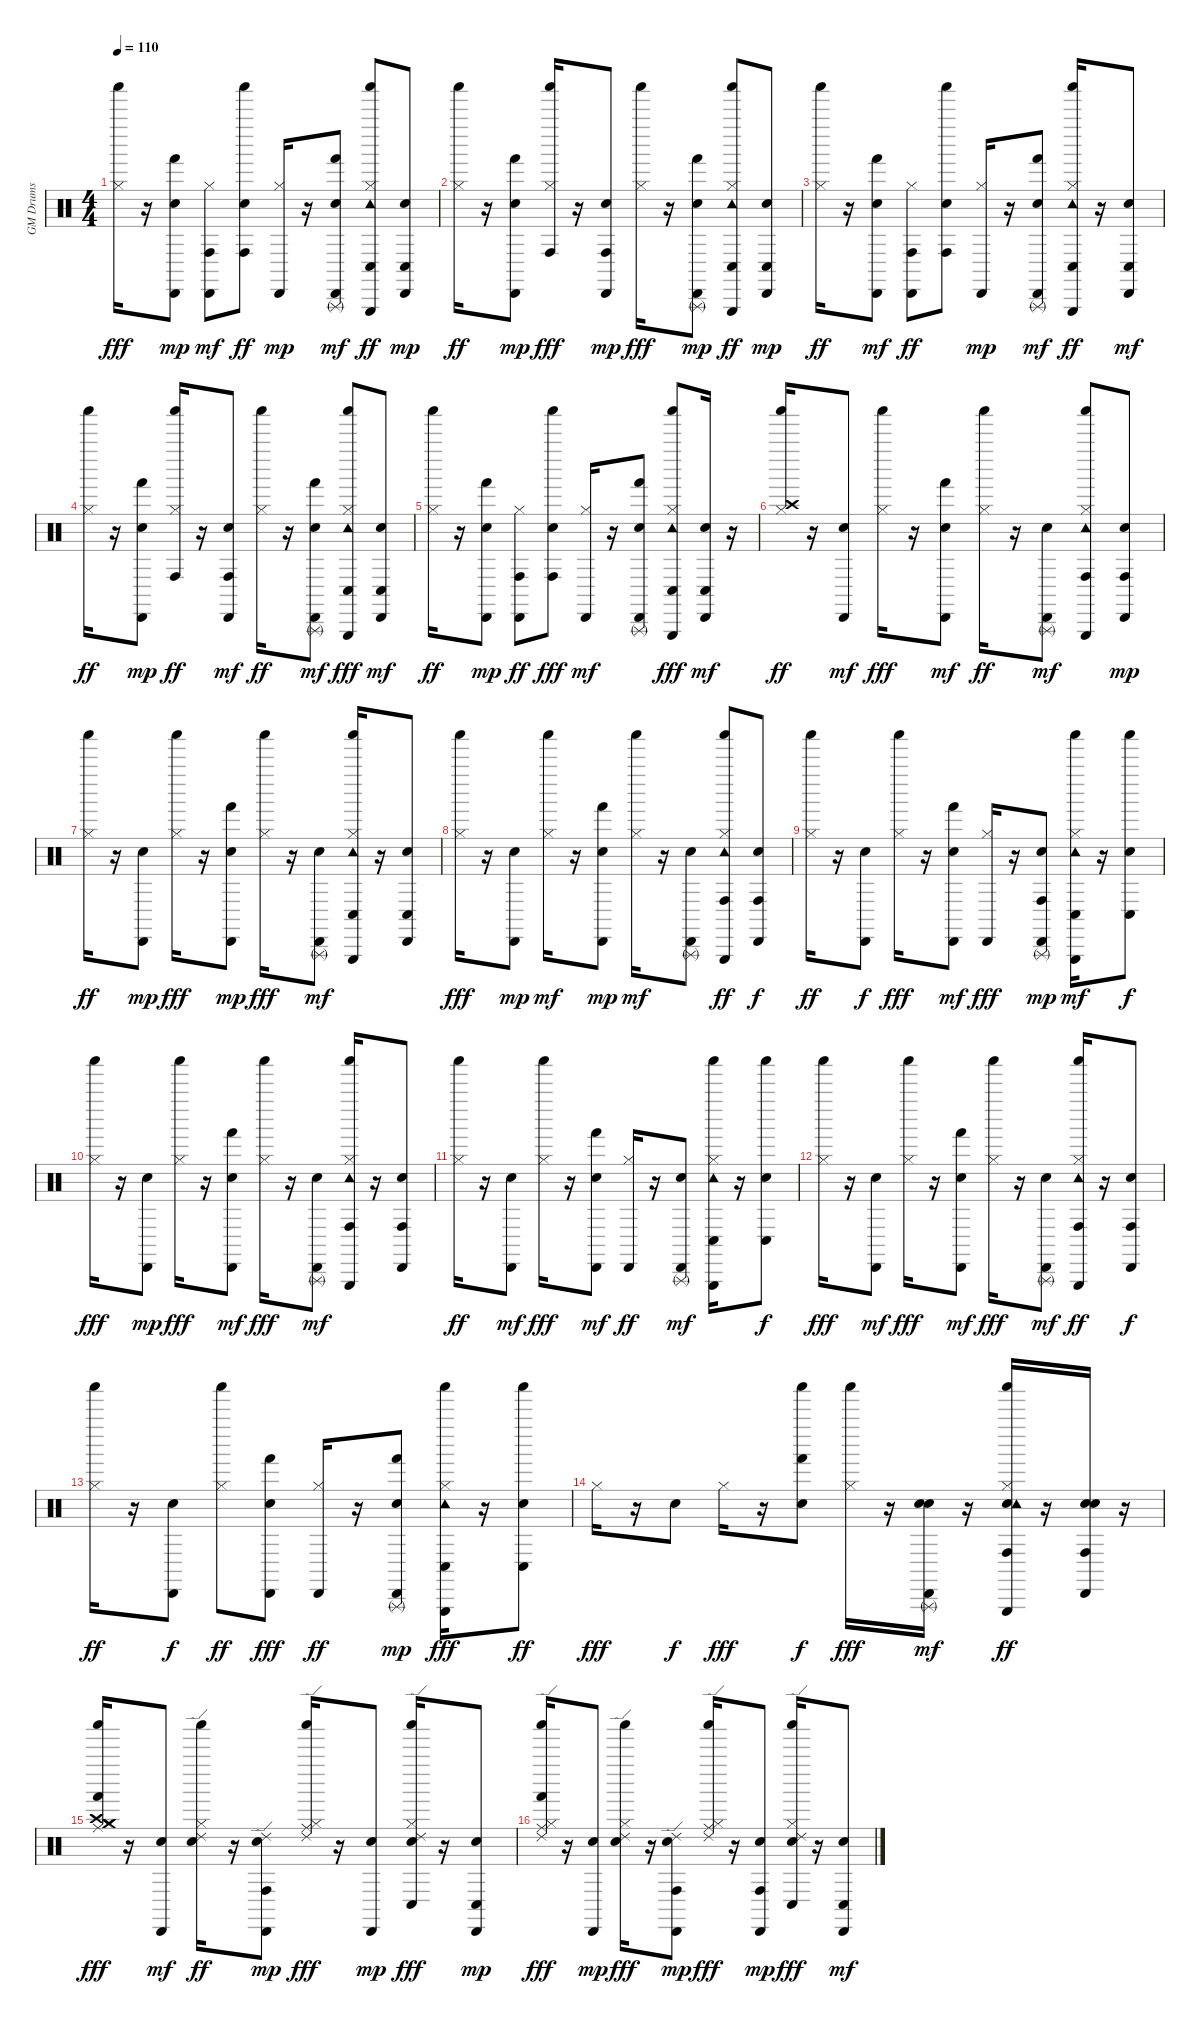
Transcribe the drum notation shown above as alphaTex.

\track ("GM Drums" "GM Drums") {instrument percussion}
\staff {score}
\articulation defaults
\ts (4 4)
\tempo 110
\clef neutral
\ks c
("Hi-Hat (closed)" "Shaker (hit)").16{dy fff} r.16 ("Snare (hit)" "Hand (hit)" "Cabasa (hit)").8{dy mp} ("Hi-Hat (closed)" "Conga high (hit)" "Cabasa (hit)").8{dy mf} ("Snare (hit)" "Conga high (hit)" "Shaker (hit)").8{dy ff} ("Hi-Hat (closed)" "Cabasa (hit)").16{dy mp} r.16 ("Snare (hit)" "Hand (hit)" "Cabasa (hit)" "Triangle (rnute)").8{dy mf} ("Hi-Hat (closed)" "Tambourine (hit)" "Conga low (hit)" "Triangle (hit)" "Shaker (hit)").8{dy ff} ("Snare (hit)" "Conga low (hit)" "Cabasa (hit)").8{dy mp} |
("Hi-Hat (closed)" "Shaker (hit)").16{dy ff} r.16 ("Snare (hit)" "Hand (hit)" "Cabasa (hit)").8{dy mp} ("Hi-Hat (closed)" "Conga high (hit)" "Shaker (hit)").16{dy fff} r.16 ("Snare (hit)" "Conga high (hit)" "Cabasa (hit)").8{dy mp} ("Hi-Hat (closed)" "Shaker (hit)").16{dy fff} r.16 ("Snare (hit)" "Hand (hit)" "Cabasa (hit)" "Triangle (rnute)").8{dy mp} ("Hi-Hat (closed)" "Tambourine (hit)" "Conga low (hit)" "Triangle (hit)" "Shaker (hit)").8{dy ff} ("Snare (hit)" "Conga low (hit)" "Cabasa (hit)").8{dy mp} |
("Hi-Hat (closed)" "Shaker (hit)").16{dy ff} r.16 ("Snare (hit)" "Hand (hit)" "Cabasa (hit)").8{dy mf} ("Hi-Hat (closed)" "Conga high (hit)" "Cabasa (hit)").8{dy ff} ("Snare (hit)" "Conga high (hit)" "Shaker (hit)").8 ("Hi-Hat (closed)" "Cabasa (hit)").16{dy mp} r.16 ("Snare (hit)" "Hand (hit)" "Cabasa (hit)" "Triangle (rnute)").8{dy mf} ("Hi-Hat (closed)" "Tambourine (hit)" "Conga low (hit)" "Triangle (hit)" "Shaker (hit)").16{dy ff} r.16 ("Snare (hit)" "Conga low (hit)" "Cabasa (hit)").8{dy mf} |
("Hi-Hat (closed)" "Shaker (hit)").16{dy ff} r.16 ("Snare (hit)" "Hand (hit)" "Cabasa (hit)").8{dy mp} ("Hi-Hat (closed)" "Conga high (hit)" "Shaker (hit)").16{dy ff} r.16 ("Snare (hit)" "Conga high (hit)" "Cabasa (hit)").8{dy mf} ("Hi-Hat (closed)" "Shaker (hit)").16{dy ff} r.16 ("Snare (hit)" "Hand (hit)" "Cabasa (hit)" "Triangle (rnute)").8{dy mf} ("Hi-Hat (closed)" "Tambourine (hit)" "Conga low (hit)" "Triangle (hit)" "Shaker (hit)").8{dy fff} ("Snare (hit)" "Conga low (hit)" "Cabasa (hit)").8{dy mf} |
("Hi-Hat (closed)" "Shaker (hit)").16{dy ff} r.16 ("Snare (hit)" "Hand (hit)" "Cabasa (hit)").8{dy mp} ("Hi-Hat (closed)" "Conga high (hit)" "Cabasa (hit)").8{dy ff} ("Snare (hit)" "Conga high (hit)" "Shaker (hit)").8{dy fff} ("Hi-Hat (closed)" "Cabasa (hit)").16{dy mf} r.16 ("Snare (hit)" "Hand (hit)" "Cabasa (hit)" "Triangle (rnute)").8 ("Hi-Hat (closed)" "Tambourine (hit)" "Conga low (hit)" "Triangle (hit)" "Shaker (hit)").8{dy fff} ("Snare (hit)" "Conga low (hit)" "Cabasa (hit)").16{dy mf} r.16 |
("Hi-Hat (closed)" "Crash high (hit)" "Shaker (hit)").16{dy ff} r.16 ("Snare (hit)" "Cabasa (hit)").8{dy mf} ("Hi-Hat (closed)" "Shaker (hit)").16{dy fff} r.16 ("Snare (hit)" "Hand (hit)" "Cabasa (hit)").8{dy mf} ("Hi-Hat (closed)" "Shaker (hit)").16{dy ff} r.16 ("Snare (hit)" "Cabasa (hit)" "Triangle (rnute)").8{dy mf} ("Hi-Hat (closed)" "Tambourine (hit)" "Conga high (hit)" "Triangle (hit)" "Shaker (hit)").8 ("Snare (hit)" "Conga high (hit)" "Cabasa (hit)").8{dy mp} |
("Hi-Hat (closed)" "Shaker (hit)").16{dy ff} r.16 ("Snare (hit)" "Cabasa (hit)").8{dy mp} ("Hi-Hat (closed)" "Shaker (hit)").16{dy fff} r.16 ("Snare (hit)" "Hand (hit)" "Cabasa (hit)").8{dy mp} ("Hi-Hat (closed)" "Shaker (hit)").16{dy fff} r.16 ("Snare (hit)" "Cabasa (hit)" "Triangle (rnute)").8{dy mf} ("Hi-Hat (closed)" "Tambourine (hit)" "Conga low (hit)" "Triangle (hit)" "Shaker (hit)").16 r.16 ("Snare (hit)" "Conga low (hit)" "Cabasa (hit)").8 |
("Hi-Hat (closed)" "Shaker (hit)").16{dy fff} r.16 ("Snare (hit)" "Cabasa (hit)").8{dy mp} ("Hi-Hat (closed)" "Shaker (hit)").16{dy mf} r.16 ("Snare (hit)" "Hand (hit)" "Cabasa (hit)").8{dy mp} ("Hi-Hat (closed)" "Shaker (hit)").16{dy mf} r.16 ("Snare (hit)" "Cabasa (hit)" "Triangle (rnute)").8 ("Hi-Hat (closed)" "Tambourine (hit)" "Conga high (hit)" "Triangle (hit)" "Shaker (hit)").8{dy ff} ("Snare (hit)" "Conga high (hit)" "Cabasa (hit)").8{dy f} |
("Hi-Hat (closed)" "Shaker (hit)").16{dy ff} r.16 ("Snare (hit)" "Cabasa (hit)").8{dy f} ("Hi-Hat (closed)" "Shaker (hit)").16{dy fff} r.16 ("Snare (hit)" "Hand (hit)" "Cabasa (hit)").8{dy mf} ("Hi-Hat (closed)" "Cabasa (hit)").16{dy fff} r.16 ("Snare (hit)" "Conga high (hit)" "Cabasa (hit)" "Triangle (rnute)").8{dy mp} ("Hi-Hat (closed)" "Tambourine (hit)" "Conga low (hit)" "Triangle (hit)" "Shaker (hit)").16{dy mf} r.16 ("Snare (hit)" "Conga low (hit)" "Shaker (hit)").8{dy f} |
("Hi-Hat (closed)" "Shaker (hit)").16{dy fff} r.16 ("Snare (hit)" "Cabasa (hit)").8{dy mp} ("Hi-Hat (closed)" "Shaker (hit)").16{dy fff} r.16 ("Snare (hit)" "Hand (hit)" "Cabasa (hit)").8{dy mf} ("Hi-Hat (closed)" "Shaker (hit)").16{dy fff} r.16 ("Snare (hit)" "Cabasa (hit)" "Triangle (rnute)").8{dy mf} ("Hi-Hat (closed)" "Tambourine (hit)" "Conga high (hit)" "Triangle (hit)" "Shaker (hit)").16 r.16 ("Snare (hit)" "Conga high (hit)" "Cabasa (hit)").8 |
("Hi-Hat (closed)" "Shaker (hit)").16{dy ff} r.16 ("Snare (hit)" "Cabasa (hit)").8{dy mf} ("Hi-Hat (closed)" "Shaker (hit)").16{dy fff} r.16 ("Snare (hit)" "Hand (hit)" "Cabasa (hit)").8{dy mf} ("Hi-Hat (closed)" "Cabasa (hit)").16{dy ff} r.16 ("Snare (hit)" "Cabasa (hit)" "Triangle (rnute)").8{dy mf} ("Hi-Hat (closed)" "Tambourine (hit)" "Conga low (hit)" "Triangle (hit)" "Shaker (hit)").16 r.16 ("Snare (hit)" "Conga low (hit)" "Shaker (hit)").8{dy f} |
("Hi-Hat (closed)" "Shaker (hit)").16{dy fff} r.16 ("Snare (hit)" "Cabasa (hit)").8{dy mf} ("Hi-Hat (closed)" "Shaker (hit)").16{dy fff} r.16 ("Snare (hit)" "Hand (hit)" "Cabasa (hit)").8{dy mf} ("Hi-Hat (closed)" "Shaker (hit)").16{dy fff} r.16 ("Snare (hit)" "Cabasa (hit)" "Triangle (rnute)").8{dy mf} ("Hi-Hat (closed)" "Tambourine (hit)" "Conga high (hit)" "Triangle (hit)" "Shaker (hit)").16{dy ff} r.16 ("Snare (hit)" "Conga high (hit)" "Cabasa (hit)").8{dy f} |
("Hi-Hat (closed)" "Shaker (hit)").16{dy ff} r.16 ("Snare (hit)" "Cabasa (hit)").8{dy f} ("Hi-Hat (closed)" "Shaker (hit)").8{dy ff} ("Snare (hit)" "Hand (hit)" "Cabasa (hit)").8{dy fff} ("Hi-Hat (closed)" "Cabasa (hit)").16{dy ff} r.16 ("Snare (hit)" "Hand (hit)" "Cabasa (hit)" "Triangle (rnute)").8{dy mp} ("Hi-Hat (closed)" "Tambourine (hit)" "Conga low (hit)" "Triangle (hit)" "Shaker (hit)").16{dy fff} r.16 ("Snare (hit)" "Conga low (hit)" "Shaker (hit)").8{dy ff} |
"Hi-Hat (closed)".16{dy fff} r.16 "Snare (hit)".8{dy f} "Hi-Hat (closed)".16{dy fff} r.16 ("Snare (hit)" "Hand (hit)" "Shaker (hit)").8{dy f} ("Hi-Hat (closed)" "Shaker (hit)").16{dy fff} r.16 ("Snare (hit)" "Snare (hit) 2" "Cabasa (hit)" "Triangle (rnute)").16{dy mf} r.16 ("Snare (hit) 2" "Hi-Hat (closed)" "Tambourine (hit)" "Conga high (hit)" "Triangle (hit)" "Shaker (hit)").16{dy ff} r.16 ("Snare (hit)" "Snare (hit) 2" "Conga high (hit)" "Cabasa (hit)").16 r.16 |
("Hi-Hat (closed)" "Crash high (hit)" "Ride (middle)" "Crash medium (hit)" "Hand (hit)" "Shaker (hit)").16{dy fff} r.16 ("Snare (hit)" "Cabasa (hit)").8{dy mf} ("Snare (hit) 2" "Hi-Hat (closed)" "Ride (edge) 2" "Shaker (hit)").16{dy ff} r.16 ("Snare (hit)" "Ride (edge) 2" "Conga high (hit)" "Cabasa (hit)").8{dy mp} ("Hi-Hat (closed)" "Ride (middle)" "Ride (edge) 2" "Shaker (hit)").16{dy fff} r.16 ("Snare (hit)" "Cabasa (hit)").8{dy mp} ("Snare (hit) 2" "Hi-Hat (closed)" "Ride (edge) 2" "Conga low (hit)" "Shaker (hit)").16{dy fff} r.16 ("Snare (hit)" "Conga low (hit)" "Cabasa (hit)").8{dy mp} |
("Hi-Hat (closed)" "Ride (middle)" "Ride (edge) 2" "Hand (hit)" "Shaker (hit)").16{dy fff} r.16 ("Snare (hit)" "Cabasa (hit)").8{dy mp} ("Snare (hit) 2" "Hi-Hat (closed)" "Ride (edge) 2" "Shaker (hit)").16{dy fff} r.16 ("Snare (hit)" "Ride (edge) 2" "Conga high (hit)" "Cabasa (hit)").8{dy mp} ("Hi-Hat (closed)" "Ride (middle)" "Ride (edge) 2" "Shaker (hit)").16{dy fff} r.16 ("Snare (hit)" "Conga high (hit)" "Cabasa (hit)").8{dy mp} ("Snare (hit) 2" "Hi-Hat (closed)" "Ride (edge) 2" "Conga low (hit)" "Shaker (hit)").16{dy fff} r.16 ("Snare (hit)" "Conga low (hit)" "Cabasa (hit)").8{dy mf}
